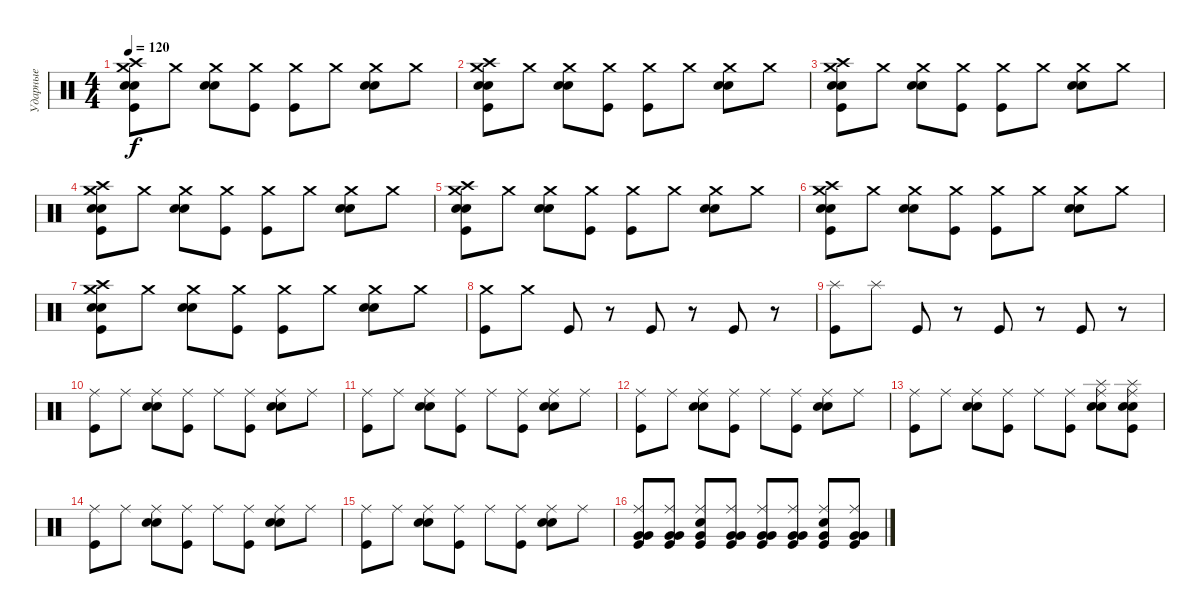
\track ("Ударные" "Ударные") {instrument percussion}
\staff {score}
\articulation defaults
\ts (4 4)
\tempo 120
\clef neutral
\ks c
("Crash medium (hit)" "Crash high (hit)" "Electric Snare (hit)" "Electric Snare (hit)" "Kick (hit)").8{dy f} "Crash medium (hit)".8 ("Crash medium (hit)" "Electric Snare (hit)" "Electric Snare (hit)").8 ("Crash medium (hit)" "Kick (hit)").8 ("Crash medium (hit)" "Kick (hit)").8 "Crash medium (hit)".8 ("Crash medium (hit)" "Electric Snare (hit)" "Electric Snare (hit)").8 "Crash medium (hit)".8 |
("Crash medium (hit)" "Crash high (hit)" "Electric Snare (hit)" "Electric Snare (hit)" "Kick (hit)").8 "Crash medium (hit)".8 ("Crash medium (hit)" "Electric Snare (hit)" "Electric Snare (hit)").8 ("Crash medium (hit)" "Kick (hit)").8 ("Crash medium (hit)" "Kick (hit)").8 "Crash medium (hit)".8 ("Crash medium (hit)" "Electric Snare (hit)" "Electric Snare (hit)").8 "Crash medium (hit)".8 |
("Crash medium (hit)" "Crash high (hit)" "Electric Snare (hit)" "Electric Snare (hit)" "Kick (hit)").8 "Crash medium (hit)".8 ("Crash medium (hit)" "Electric Snare (hit)" "Electric Snare (hit)").8 ("Crash medium (hit)" "Kick (hit)").8 ("Crash medium (hit)" "Kick (hit)").8 "Crash medium (hit)".8 ("Crash medium (hit)" "Electric Snare (hit)" "Electric Snare (hit)").8 "Crash medium (hit)".8 |
("Crash medium (hit)" "Crash high (hit)" "Electric Snare (hit)" "Electric Snare (hit)" "Kick (hit)").8 "Crash medium (hit)".8 ("Crash medium (hit)" "Electric Snare (hit)" "Electric Snare (hit)").8 ("Crash medium (hit)" "Kick (hit)").8 ("Crash medium (hit)" "Kick (hit)").8 "Crash medium (hit)".8 ("Crash medium (hit)" "Electric Snare (hit)" "Electric Snare (hit)").8 "Crash medium (hit)".8 |
("Crash medium (hit)" "Crash high (hit)" "Electric Snare (hit)" "Electric Snare (hit)" "Kick (hit)").8 "Crash medium (hit)".8 ("Crash medium (hit)" "Electric Snare (hit)" "Electric Snare (hit)").8 ("Crash medium (hit)" "Kick (hit)").8 ("Crash medium (hit)" "Kick (hit)").8 "Crash medium (hit)".8 ("Crash medium (hit)" "Electric Snare (hit)" "Electric Snare (hit)").8 "Crash medium (hit)".8 |
("Crash medium (hit)" "Crash high (hit)" "Electric Snare (hit)" "Electric Snare (hit)" "Kick (hit)").8 "Crash medium (hit)".8 ("Crash medium (hit)" "Electric Snare (hit)" "Electric Snare (hit)").8 ("Crash medium (hit)" "Kick (hit)").8 ("Crash medium (hit)" "Kick (hit)").8 "Crash medium (hit)".8 ("Crash medium (hit)" "Electric Snare (hit)" "Electric Snare (hit)").8 "Crash medium (hit)".8 |
("Crash medium (hit)" "Crash high (hit)" "Electric Snare (hit)" "Electric Snare (hit)" "Kick (hit)").8 "Crash medium (hit)".8 ("Crash medium (hit)" "Electric Snare (hit)" "Electric Snare (hit)").8 ("Crash medium (hit)" "Kick (hit)").8 ("Crash medium (hit)" "Kick (hit)").8 "Crash medium (hit)".8 ("Crash medium (hit)" "Electric Snare (hit)" "Electric Snare (hit)").8 "Crash medium (hit)".8 |
("Crash medium (hit)" "Kick (hit)").8 "Crash medium (hit)".8 "Kick (hit)".8 r.8 "Kick (hit)".8 r.8 "Kick (hit)".8 r.8 |
("Splash (hit)" "Kick (hit)").8 "Splash (hit)".8 "Kick (hit)".8 r.8 "Kick (hit)".8 r.8 "Kick (hit)".8 r.8 |
("Ride (middle)" "Kick (hit)").8 "Ride (middle)".8 ("Ride (middle)" "Electric Snare (hit)" "Electric Snare (hit)").8 ("Ride (middle)" "Kick (hit)").8 "Ride (middle)".8 ("Ride (middle)" "Kick (hit)").8 ("Ride (middle)" "Electric Snare (hit)" "Electric Snare (hit)").8 "Ride (middle)".8 |
("Ride (middle)" "Kick (hit)").8 "Ride (middle)".8 ("Ride (middle)" "Electric Snare (hit)" "Electric Snare (hit)").8 ("Ride (middle)" "Kick (hit)").8 "Ride (middle)".8 ("Ride (middle)" "Kick (hit)").8 ("Ride (middle)" "Electric Snare (hit)" "Electric Snare (hit)").8 "Ride (middle)".8 |
("Ride (middle)" "Kick (hit)").8 "Ride (middle)".8 ("Ride (middle)" "Electric Snare (hit)" "Electric Snare (hit)").8 ("Ride (middle)" "Kick (hit)").8 "Ride (middle)".8 ("Ride (middle)" "Kick (hit)").8 ("Ride (middle)" "Electric Snare (hit)" "Electric Snare (hit)").8 "Ride (middle)".8 |
("Ride (middle)" "Kick (hit)").8 "Ride (middle)".8 ("Ride (middle)" "Electric Snare (hit)" "Electric Snare (hit)").8 ("Ride (middle)" "Kick (hit)").8 "Ride (middle)".8 ("Ride (middle)" "Kick (hit)").8 ("Ride (middle)" "Splash (hit)" "Electric Snare (hit)" "Electric Snare (hit)").8 ("Ride (middle)" "Splash (hit)" "Electric Snare (hit)" "Electric Snare (hit)" "Kick (hit)").8 |
("Ride (middle)" "Kick (hit)").8 "Ride (middle)".8 ("Ride (middle)" "Electric Snare (hit)" "Electric Snare (hit)").8 ("Ride (middle)" "Kick (hit)").8 "Ride (middle)".8 ("Ride (middle)" "Kick (hit)").8 ("Ride (middle)" "Electric Snare (hit)" "Electric Snare (hit)").8 "Ride (middle)".8 |
("Ride (middle)" "Kick (hit)").8 "Ride (middle)".8 ("Ride (middle)" "Electric Snare (hit)" "Electric Snare (hit)").8 ("Ride (middle)" "Kick (hit)").8 "Ride (middle)".8 ("Ride (middle)" "Kick (hit)").8 ("Ride (middle)" "Electric Snare (hit)" "Electric Snare (hit)").8 "Ride (middle)".8 |
("Ride (middle)" "Very Low Tom (hit)" "Very Low Tom (hit)" "Kick (hit)").8 ("Ride (middle)" "Very Low Tom (hit)" "Very Low Tom (hit)" "Kick (hit)").8 ("Ride (middle)" "Very Low Tom (hit)" "Electric Snare (hit)" "Kick (hit)").8 ("Ride (middle)" "Very Low Tom (hit)" "Very Low Tom (hit)" "Kick (hit)").8 ("Ride (middle)" "Very Low Tom (hit)" "Very Low Tom (hit)" "Kick (hit)").8 ("Ride (middle)" "Very Low Tom (hit)" "Very Low Tom (hit)" "Kick (hit)").8 ("Ride (middle)" "Very Low Tom (hit)" "Electric Snare (hit)" "Kick (hit)").8 ("Ride (middle)" "Very Low Tom (hit)" "Very Low Tom (hit)" "Kick (hit)").8
